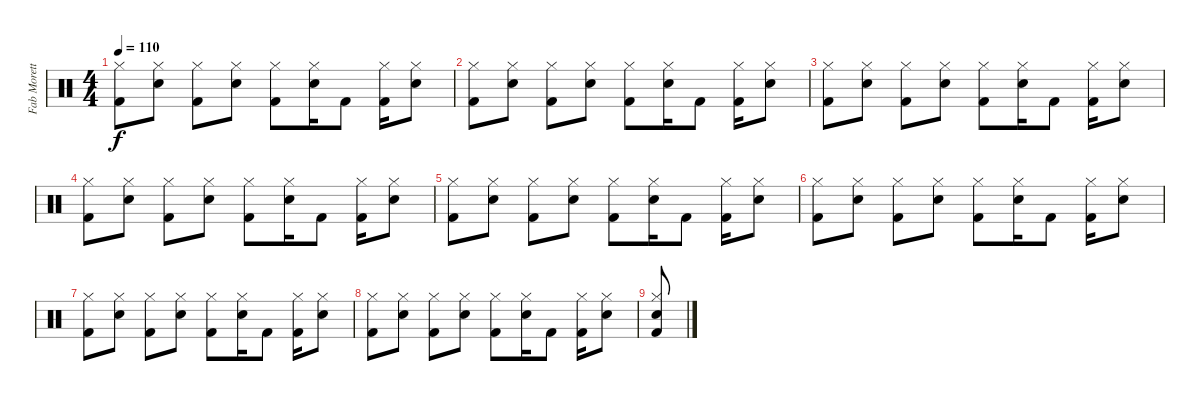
\track ("Fab Moretti" "Fab Morett") {instrument percussion}
\staff {score}
\articulation defaults
\ts (4 4)
\tempo 110
\clef neutral
\ks c
("Kick (hit) 2" "Hi-Hat (closed)").8{dy f} ("Electric Snare (hit)" "Hi-Hat (closed)").8 ("Kick (hit) 2" "Hi-Hat (closed)").8 ("Electric Snare (hit)" "Hi-Hat (closed)").8 ("Kick (hit) 2" "Hi-Hat (closed)").8 ("Electric Snare (hit)" "Hi-Hat (closed)").16 "Kick (hit) 2".8 ("Kick (hit) 2" "Hi-Hat (closed)").16 ("Electric Snare (hit)" "Hi-Hat (closed)").8 |
("Kick (hit) 2" "Hi-Hat (closed)").8 ("Electric Snare (hit)" "Hi-Hat (closed)").8 ("Kick (hit) 2" "Hi-Hat (closed)").8 ("Electric Snare (hit)" "Hi-Hat (closed)").8 ("Kick (hit) 2" "Hi-Hat (closed)").8 ("Electric Snare (hit)" "Hi-Hat (closed)").16 "Kick (hit) 2".8 ("Kick (hit) 2" "Hi-Hat (closed)").16 ("Electric Snare (hit)" "Hi-Hat (closed)").8 |
("Kick (hit) 2" "Hi-Hat (closed)").8 ("Electric Snare (hit)" "Hi-Hat (closed)").8 ("Kick (hit) 2" "Hi-Hat (closed)").8 ("Electric Snare (hit)" "Hi-Hat (closed)").8 ("Kick (hit) 2" "Hi-Hat (closed)").8 ("Electric Snare (hit)" "Hi-Hat (closed)").16 "Kick (hit) 2".8 ("Kick (hit) 2" "Hi-Hat (closed)").16 ("Electric Snare (hit)" "Hi-Hat (closed)").8 |
("Kick (hit) 2" "Hi-Hat (closed)").8 ("Electric Snare (hit)" "Hi-Hat (closed)").8 ("Kick (hit) 2" "Hi-Hat (closed)").8 ("Electric Snare (hit)" "Hi-Hat (closed)").8 ("Kick (hit) 2" "Hi-Hat (closed)").8 ("Electric Snare (hit)" "Hi-Hat (closed)").16 "Kick (hit) 2".8 ("Kick (hit) 2" "Hi-Hat (closed)").16 ("Electric Snare (hit)" "Hi-Hat (closed)").8 |
("Kick (hit) 2" "Hi-Hat (closed)").8 ("Electric Snare (hit)" "Hi-Hat (closed)").8 ("Kick (hit) 2" "Hi-Hat (closed)").8 ("Electric Snare (hit)" "Hi-Hat (closed)").8 ("Kick (hit) 2" "Hi-Hat (closed)").8 ("Electric Snare (hit)" "Hi-Hat (closed)").16 "Kick (hit) 2".8 ("Kick (hit) 2" "Hi-Hat (closed)").16 ("Electric Snare (hit)" "Hi-Hat (closed)").8 |
("Kick (hit) 2" "Hi-Hat (closed)").8 ("Electric Snare (hit)" "Hi-Hat (closed)").8 ("Kick (hit) 2" "Hi-Hat (closed)").8 ("Electric Snare (hit)" "Hi-Hat (closed)").8 ("Kick (hit) 2" "Hi-Hat (closed)").8 ("Electric Snare (hit)" "Hi-Hat (closed)").16 "Kick (hit) 2".8 ("Kick (hit) 2" "Hi-Hat (closed)").16 ("Electric Snare (hit)" "Hi-Hat (closed)").8 |
("Kick (hit) 2" "Hi-Hat (closed)").8 ("Electric Snare (hit)" "Hi-Hat (closed)").8 ("Kick (hit) 2" "Hi-Hat (closed)").8 ("Electric Snare (hit)" "Hi-Hat (closed)").8 ("Kick (hit) 2" "Hi-Hat (closed)").8 ("Electric Snare (hit)" "Hi-Hat (closed)").16 "Kick (hit) 2".8 ("Kick (hit) 2" "Hi-Hat (closed)").16 ("Electric Snare (hit)" "Hi-Hat (closed)").8 |
("Kick (hit) 2" "Hi-Hat (closed)").8 ("Electric Snare (hit)" "Hi-Hat (closed)").8 ("Kick (hit) 2" "Hi-Hat (closed)").8 ("Electric Snare (hit)" "Hi-Hat (closed)").8 ("Kick (hit) 2" "Hi-Hat (closed)").8 ("Electric Snare (hit)" "Hi-Hat (closed)").16 "Kick (hit) 2".8 ("Kick (hit) 2" "Hi-Hat (closed)").16 ("Electric Snare (hit)" "Hi-Hat (closed)").8 |
("Kick (hit) 2" "Hi-Hat (closed)" "Electric Snare (hit)").8
